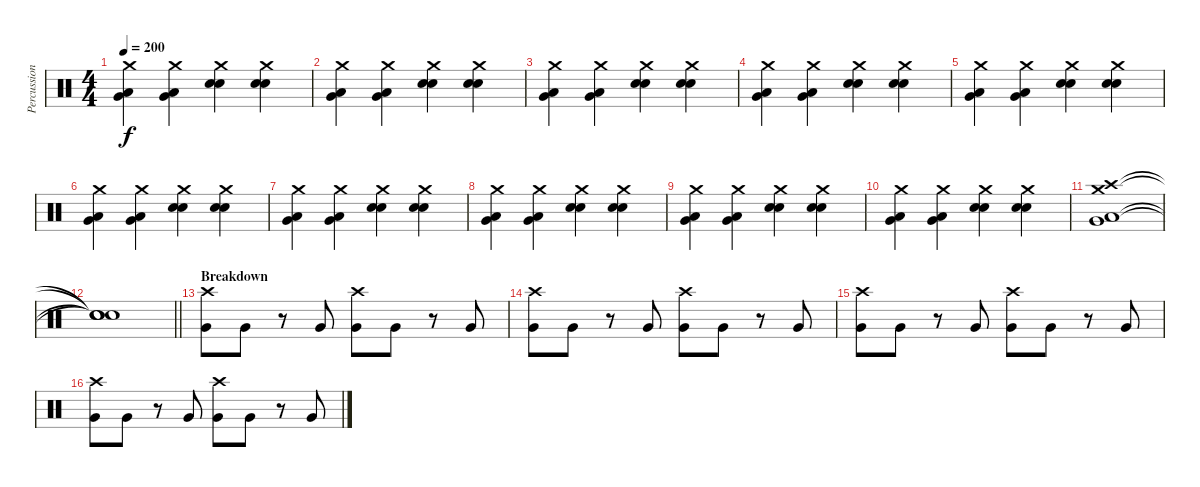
\track ("Percussion" "Percussion") {instrument percussion}
\staff {score}
\articulation defaults
\ts (4 4)
\tempo 200
\clef neutral
\ks c
("Crash medium (hit)" "Very Low Tom (hit)" "Low Floor Tom (hit)").4{dy f} ("Crash medium (hit)" "Very Low Tom (hit)" "Low Floor Tom (hit)").4 ("Crash medium (hit)" "Snare (hit) 2" "Electric Snare (hit)").4 ("Crash medium (hit)" "Snare (hit) 2" "Electric Snare (hit)").4 |
("Crash medium (hit)" "Very Low Tom (hit)" "Low Floor Tom (hit)").4 ("Crash medium (hit)" "Very Low Tom (hit)" "Low Floor Tom (hit)").4 ("Crash medium (hit)" "Snare (hit) 2" "Electric Snare (hit)").4 ("Crash medium (hit)" "Snare (hit) 2" "Electric Snare (hit)").4 |
("Crash medium (hit)" "Very Low Tom (hit)" "Low Floor Tom (hit)").4 ("Crash medium (hit)" "Very Low Tom (hit)" "Low Floor Tom (hit)").4 ("Crash medium (hit)" "Snare (hit) 2" "Electric Snare (hit)").4 ("Crash medium (hit)" "Snare (hit) 2" "Electric Snare (hit)").4 |
("Crash medium (hit)" "Very Low Tom (hit)" "Low Floor Tom (hit)").4 ("Crash medium (hit)" "Very Low Tom (hit)" "Low Floor Tom (hit)").4 ("Crash medium (hit)" "Snare (hit) 2" "Electric Snare (hit)").4 ("Crash medium (hit)" "Snare (hit) 2" "Electric Snare (hit)").4 |
("Crash medium (hit)" "Very Low Tom (hit)" "Low Floor Tom (hit)").4 ("Crash medium (hit)" "Very Low Tom (hit)" "Low Floor Tom (hit)").4 ("Crash medium (hit)" "Snare (hit) 2" "Electric Snare (hit)").4 ("Crash medium (hit)" "Snare (hit) 2" "Electric Snare (hit)").4 |
("Crash medium (hit)" "Very Low Tom (hit)" "Low Floor Tom (hit)").4 ("Crash medium (hit)" "Very Low Tom (hit)" "Low Floor Tom (hit)").4 ("Crash medium (hit)" "Snare (hit) 2" "Electric Snare (hit)").4 ("Crash medium (hit)" "Snare (hit) 2" "Electric Snare (hit)").4 |
("Crash medium (hit)" "Very Low Tom (hit)" "Low Floor Tom (hit)").4 ("Crash medium (hit)" "Very Low Tom (hit)" "Low Floor Tom (hit)").4 ("Crash medium (hit)" "Snare (hit) 2" "Electric Snare (hit)").4 ("Crash medium (hit)" "Snare (hit) 2" "Electric Snare (hit)").4 |
("Crash medium (hit)" "Very Low Tom (hit)" "Low Floor Tom (hit)").4 ("Crash medium (hit)" "Very Low Tom (hit)" "Low Floor Tom (hit)").4 ("Crash medium (hit)" "Snare (hit) 2" "Electric Snare (hit)").4 ("Crash medium (hit)" "Snare (hit) 2" "Electric Snare (hit)").4 |
("Crash medium (hit)" "Very Low Tom (hit)" "Low Floor Tom (hit)").4 ("Crash medium (hit)" "Very Low Tom (hit)" "Low Floor Tom (hit)").4 ("Crash medium (hit)" "Snare (hit) 2" "Electric Snare (hit)").4 ("Crash medium (hit)" "Snare (hit) 2" "Electric Snare (hit)").4 |
("Crash medium (hit)" "Very Low Tom (hit)" "Low Floor Tom (hit)").4 ("Crash medium (hit)" "Very Low Tom (hit)" "Low Floor Tom (hit)").4 ("Crash medium (hit)" "Snare (hit) 2" "Electric Snare (hit)").4 ("Crash medium (hit)" "Snare (hit) 2" "Electric Snare (hit)").4 |
("Crash high (hit)" "Very Low Tom (hit)" "Crash medium (hit)" "Low Floor Tom (hit)").1 |
\barLineRight lightlight
("Snare (hit)"{t} "Snare (hit)"{t} "Snare (hit)"{t} "Snare (hit)"{t}).1 |
\section ("" "Breakdown")
("Crash high (hit)" "Very Low Tom (hit)").8 "Very Low Tom (hit)".8 r.8 "Very Low Tom (hit)".8 ("Crash high (hit)" "Very Low Tom (hit)").8 "Very Low Tom (hit)".8 r.8 "Very Low Tom (hit)".8 |
("Crash high (hit)" "Very Low Tom (hit)").8 "Very Low Tom (hit)".8 r.8 "Very Low Tom (hit)".8 ("Crash high (hit)" "Very Low Tom (hit)").8 "Very Low Tom (hit)".8 r.8 "Very Low Tom (hit)".8 |
("Crash high (hit)" "Very Low Tom (hit)").8 "Very Low Tom (hit)".8 r.8 "Very Low Tom (hit)".8 ("Crash high (hit)" "Very Low Tom (hit)").8 "Very Low Tom (hit)".8 r.8 "Very Low Tom (hit)".8 |
("Crash high (hit)" "Very Low Tom (hit)").8 "Very Low Tom (hit)".8 r.8 "Very Low Tom (hit)".8 ("Crash high (hit)" "Very Low Tom (hit)").8 "Very Low Tom (hit)".8 r.8 "Very Low Tom (hit)".8
